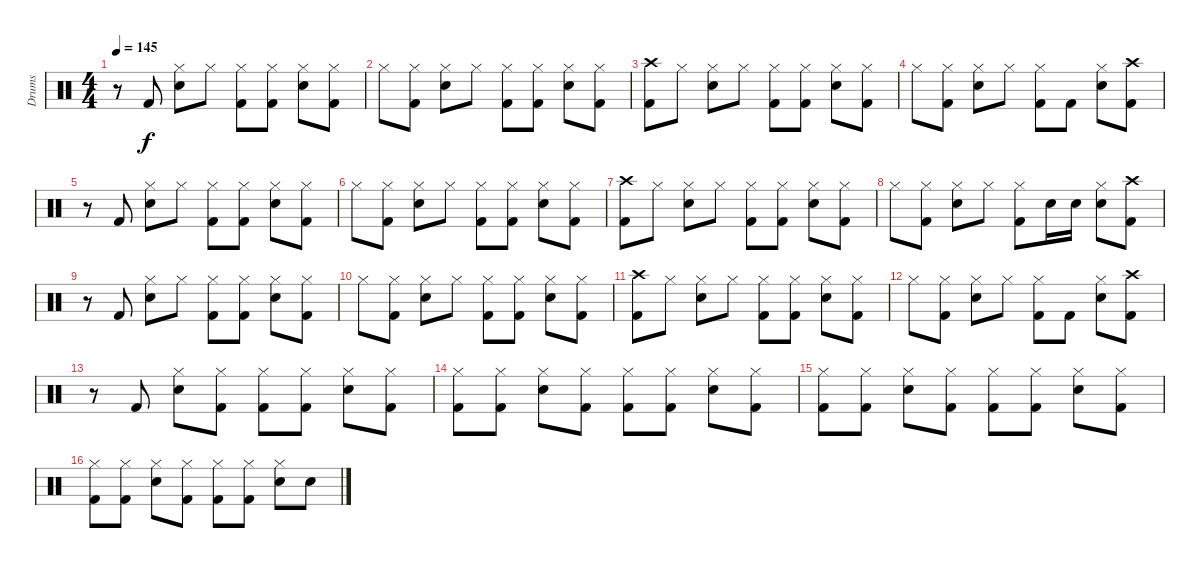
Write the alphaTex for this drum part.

\track ("Drums" "Drums") {instrument percussion}
\staff {score}
\articulation defaults
\ts (4 4)
\tempo 145
\clef neutral
\ks c
r.8{dy f} "Kick (hit) 2".8 ("Hi-Hat (closed)" "Snare (hit) 2").8 "Hi-Hat (closed)".8 ("Hi-Hat (closed)" "Kick (hit) 2").8 ("Hi-Hat (closed)" "Kick (hit) 2").8 ("Hi-Hat (closed)" "Snare (hit) 2").8 ("Hi-Hat (closed)" "Kick (hit) 2").8 |
"Hi-Hat (closed)".8 ("Hi-Hat (closed)" "Kick (hit) 2").8 ("Hi-Hat (closed)" "Snare (hit) 2").8 "Hi-Hat (closed)".8 ("Hi-Hat (closed)" "Kick (hit) 2").8 ("Hi-Hat (closed)" "Kick (hit) 2").8 ("Hi-Hat (closed)" "Snare (hit) 2").8 ("Hi-Hat (closed)" "Kick (hit) 2").8 |
("Crash high (hit)" "Kick (hit) 2").8 "Hi-Hat (closed)".8 ("Hi-Hat (closed)" "Snare (hit) 2").8 "Hi-Hat (closed)".8 ("Hi-Hat (closed)" "Kick (hit) 2").8 ("Hi-Hat (closed)" "Kick (hit) 2").8 ("Hi-Hat (closed)" "Snare (hit) 2").8 ("Hi-Hat (closed)" "Kick (hit) 2").8 |
"Hi-Hat (closed)".8 ("Hi-Hat (closed)" "Kick (hit) 2").8 ("Hi-Hat (closed)" "Snare (hit) 2").8 "Hi-Hat (closed)".8 ("Hi-Hat (closed)" "Kick (hit) 2").8 "Kick (hit) 2".8 ("Hi-Hat (closed)" "Snare (hit) 2").8 ("Crash high (hit)" "Kick (hit) 2").8 |
r.8 "Kick (hit) 2".8 ("Hi-Hat (closed)" "Snare (hit) 2").8 "Hi-Hat (closed)".8 ("Hi-Hat (closed)" "Kick (hit) 2").8 ("Hi-Hat (closed)" "Kick (hit) 2").8 ("Hi-Hat (closed)" "Snare (hit) 2").8 ("Hi-Hat (closed)" "Kick (hit) 2").8 |
"Hi-Hat (closed)".8 ("Hi-Hat (closed)" "Kick (hit) 2").8 ("Hi-Hat (closed)" "Snare (hit) 2").8 "Hi-Hat (closed)".8 ("Hi-Hat (closed)" "Kick (hit) 2").8 ("Hi-Hat (closed)" "Kick (hit) 2").8 ("Hi-Hat (closed)" "Snare (hit) 2").8 ("Hi-Hat (closed)" "Kick (hit) 2").8 |
("Crash high (hit)" "Kick (hit) 2").8 "Hi-Hat (closed)".8 ("Hi-Hat (closed)" "Snare (hit) 2").8 "Hi-Hat (closed)".8 ("Hi-Hat (closed)" "Kick (hit) 2").8 ("Hi-Hat (closed)" "Kick (hit) 2").8 ("Hi-Hat (closed)" "Snare (hit) 2").8 ("Hi-Hat (closed)" "Kick (hit) 2").8 |
"Hi-Hat (closed)".8 ("Hi-Hat (closed)" "Kick (hit) 2").8 ("Hi-Hat (closed)" "Snare (hit) 2").8 "Hi-Hat (closed)".8 ("Hi-Hat (closed)" "Kick (hit) 2").8 "Snare (hit) 2".16 "Snare (hit) 2".16 ("Hi-Hat (closed)" "Snare (hit) 2").8 ("Crash high (hit)" "Kick (hit) 2").8 |
r.8 "Kick (hit) 2".8 ("Hi-Hat (closed)" "Snare (hit) 2").8 "Hi-Hat (closed)".8 ("Hi-Hat (closed)" "Kick (hit) 2").8 ("Hi-Hat (closed)" "Kick (hit) 2").8 ("Hi-Hat (closed)" "Snare (hit) 2").8 ("Hi-Hat (closed)" "Kick (hit) 2").8 |
"Hi-Hat (closed)".8 ("Hi-Hat (closed)" "Kick (hit) 2").8 ("Hi-Hat (closed)" "Snare (hit) 2").8 "Hi-Hat (closed)".8 ("Hi-Hat (closed)" "Kick (hit) 2").8 ("Hi-Hat (closed)" "Kick (hit) 2").8 ("Hi-Hat (closed)" "Snare (hit) 2").8 ("Hi-Hat (closed)" "Kick (hit) 2").8 |
("Crash high (hit)" "Kick (hit) 2").8 "Hi-Hat (closed)".8 ("Hi-Hat (closed)" "Snare (hit) 2").8 "Hi-Hat (closed)".8 ("Hi-Hat (closed)" "Kick (hit) 2").8 ("Hi-Hat (closed)" "Kick (hit) 2").8 ("Hi-Hat (closed)" "Snare (hit) 2").8 ("Hi-Hat (closed)" "Kick (hit) 2").8 |
"Hi-Hat (closed)".8 ("Hi-Hat (closed)" "Kick (hit) 2").8 ("Hi-Hat (closed)" "Snare (hit) 2").8 "Hi-Hat (closed)".8 ("Hi-Hat (closed)" "Kick (hit) 2").8 "Kick (hit) 2".8 ("Hi-Hat (closed)" "Snare (hit) 2").8 ("Crash high (hit)" "Kick (hit) 2").8 |
r.8 "Kick (hit) 2".8 ("Hi-Hat (closed)" "Snare (hit) 2").8 ("Hi-Hat (closed)" "Kick (hit) 2").8 ("Hi-Hat (closed)" "Kick (hit) 2").8 ("Hi-Hat (closed)" "Kick (hit) 2").8 ("Hi-Hat (closed)" "Snare (hit) 2").8 ("Hi-Hat (closed)" "Kick (hit) 2").8 |
("Hi-Hat (closed)" "Kick (hit) 2").8 ("Hi-Hat (closed)" "Kick (hit) 2").8 ("Hi-Hat (closed)" "Snare (hit) 2").8 ("Hi-Hat (closed)" "Kick (hit) 2").8 ("Hi-Hat (closed)" "Kick (hit) 2").8 ("Hi-Hat (closed)" "Kick (hit) 2").8 ("Hi-Hat (closed)" "Snare (hit) 2").8 ("Hi-Hat (closed)" "Kick (hit) 2").8 |
("Hi-Hat (closed)" "Kick (hit) 2").8 ("Hi-Hat (closed)" "Kick (hit) 2").8 ("Hi-Hat (closed)" "Snare (hit) 2").8 ("Hi-Hat (closed)" "Kick (hit) 2").8 ("Hi-Hat (closed)" "Kick (hit) 2").8 ("Hi-Hat (closed)" "Kick (hit) 2").8 ("Hi-Hat (closed)" "Snare (hit) 2").8 ("Hi-Hat (closed)" "Kick (hit) 2").8 |
("Hi-Hat (closed)" "Kick (hit) 2").8 ("Hi-Hat (closed)" "Kick (hit) 2").8 ("Hi-Hat (closed)" "Snare (hit) 2").8 ("Hi-Hat (closed)" "Kick (hit) 2").8 ("Hi-Hat (closed)" "Kick (hit) 2").8 ("Hi-Hat (closed)" "Kick (hit) 2").8 ("Hi-Hat (closed)" "Snare (hit) 2").8 "Snare (hit) 2".8
